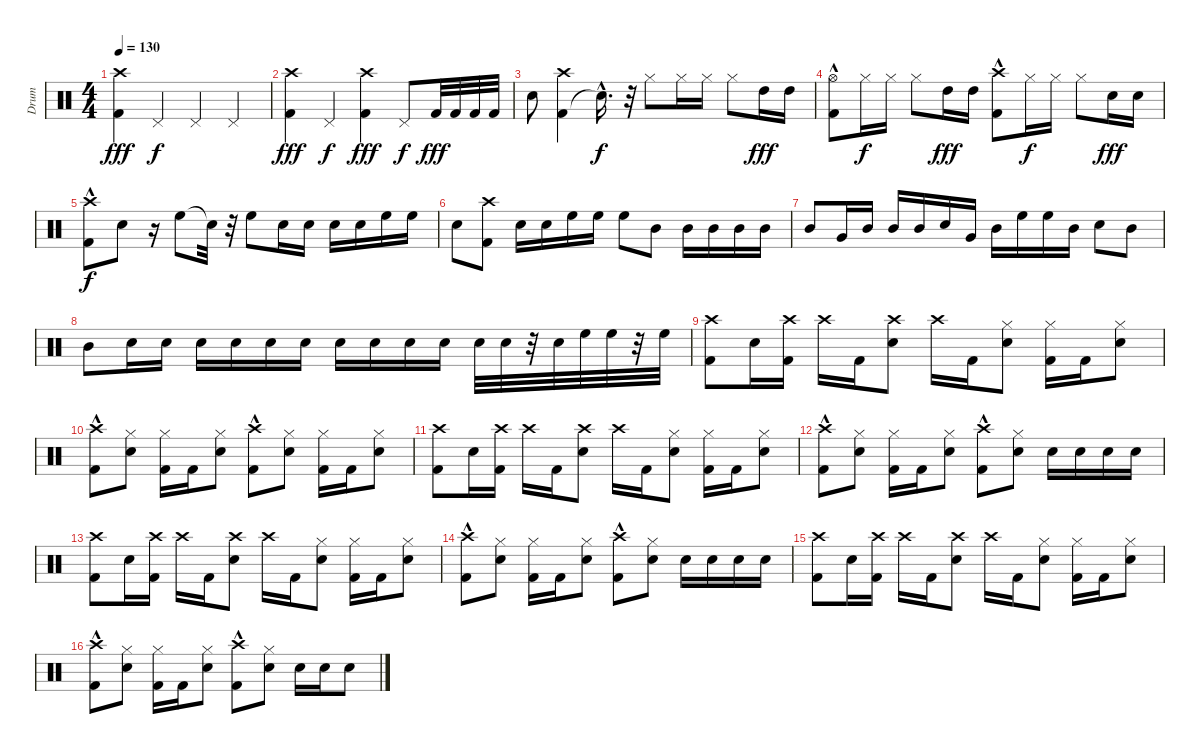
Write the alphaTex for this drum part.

\track ("Drum" "Drum") {instrument percussion}
\staff {score}
\articulation defaults
\ts (4 4)
\tempo 130
\clef neutral
\ks c
("Kick (hit) 2" "Crash high (hit)").4{dy fff} "Pedal Hi-Hat (hit)".4{dy f} "Pedal Hi-Hat (hit)".4 "Pedal Hi-Hat (hit)".4 |
("Kick (hit) 2" "Crash high (hit)").4{dy fff} "Pedal Hi-Hat (hit)".4{dy f} ("Kick (hit) 2" "Crash high (hit)").4{dy fff} "Pedal Hi-Hat (hit)".8{dy f} "Kick (hit) 2".32{dy fff} "Kick (hit) 2".32 "Kick (hit) 2".32 "Kick (hit) 2".32 |
"Snare (hit) 2".8 ("Kick (hit) 2" "Crash high (hit)").4 "Snare (hit)"{hac t}.16{d dy f} r.32 "Hi-Hat (closed)".8 "Hi-Hat (closed)".16 "Hi-Hat (closed)".16 "Hi-Hat (closed)".8 "High Tom (hit)".16{dy fff} "High Tom (hit)".16 |
("Kick (hit) 2"{hac} "Hi-Hat (open)").8 "Hi-Hat (closed)".16{dy f} "Hi-Hat (closed)".16 "Hi-Hat (closed)".8 "High Tom (hit)".16{dy fff} "High Tom (hit)".16 ("Kick (hit) 2"{hac} "Crash high (hit)").8 "Hi-Hat (closed)".16{dy f} "Hi-Hat (closed)".16 "Hi-Hat (closed)".8 "Snare (hit) 2".16{dy fff} "Snare (hit) 2".16 |
("Kick (hit) 2"{hac} "Crash high (hit)").8{dy f} "Snare (hit) 2".8 r.16 "High Floor Tom (hit)".8 "Snare (hit)"{t}.32 r.32 "High Floor Tom (hit)".8 "Snare (hit) 2".16 "Snare (hit) 2".16 "Snare (hit) 2".16 "Snare (hit) 2".16 "High Floor Tom (hit)".16 "High Floor Tom (hit)".16 |
"Snare (hit) 2".8 ("Crash high (hit)" "Kick (hit) 2").8 "Snare (hit) 2".16 "Snare (hit) 2".16 "High Floor Tom (hit)".16 "High Floor Tom (hit)".16 "High Floor Tom (hit)".8 "Mid Tom (hit)".8 "Mid Tom (hit)".16 "Mid Tom (hit)".16 "Mid Tom (hit)".16 "Mid Tom (hit)".16 |
"Mid Tom (hit)".8 "Very Low Tom (hit)".16 "Mid Tom (hit)".16 "Mid Tom (hit)".16 "Mid Tom (hit)".16 "Snare (hit) 2".16 "Very Low Tom (hit)".16 "Mid Tom (hit)".16 "High Floor Tom (hit)".16 "High Floor Tom (hit)".16 "Mid Tom (hit)".16 "Snare (hit) 2".8 "Mid Tom (hit)".8 |
"Mid Tom (hit)".8 "Snare (hit) 2".16 "Snare (hit) 2".16 "Snare (hit) 2".16 "Snare (hit) 2".16 "Snare (hit) 2".16 "Snare (hit) 2".16 "Snare (hit) 2".16 "Snare (hit) 2".16 "Snare (hit) 2".16 "Snare (hit) 2".16 "Snare (hit) 2".32 "Snare (hit) 2".32 r.32 "Snare (hit) 2".32 "High Floor Tom (hit)".32 "High Floor Tom (hit)".32 r.32 "High Floor Tom (hit)".32 |
("Crash high (hit)" "Kick (hit) 2").8 "Snare (hit) 2".16 ("Crash high (hit)" "Kick (hit) 2").16 "Crash high (hit)".16 "Kick (hit) 2".16 ("Crash high (hit)" "Snare (hit) 2").8 "Crash high (hit)".16 "Kick (hit) 2".16 ("Hi-Hat (closed)" "Snare (hit) 2").8 ("Hi-Hat (closed)" "Kick (hit) 2").16 "Kick (hit) 2".16 ("Hi-Hat (closed)" "Snare (hit) 2").8 |
("Crash high (hit)" "Kick (hit) 2"{hac}).8 ("Hi-Hat (closed)" "Snare (hit) 2").8 ("Hi-Hat (closed)" "Kick (hit) 2").16 "Kick (hit) 2".16 ("Hi-Hat (closed)" "Snare (hit) 2").8 ("Crash high (hit)" "Kick (hit) 2"{hac}).8 ("Hi-Hat (closed)" "Snare (hit) 2").8 ("Hi-Hat (closed)" "Kick (hit) 2").16 "Kick (hit) 2".16 ("Hi-Hat (closed)" "Snare (hit) 2").8 |
("Crash high (hit)" "Kick (hit) 2").8 "Snare (hit) 2".16 ("Crash high (hit)" "Kick (hit) 2").16 "Crash high (hit)".16 "Kick (hit) 2".16 ("Crash high (hit)" "Snare (hit) 2").8 "Crash high (hit)".16 "Kick (hit) 2".16 ("Hi-Hat (closed)" "Snare (hit) 2").8 ("Hi-Hat (closed)" "Kick (hit) 2").16 "Kick (hit) 2".16 ("Hi-Hat (closed)" "Snare (hit) 2").8 |
("Crash high (hit)" "Kick (hit) 2"{hac}).8 ("Hi-Hat (closed)" "Snare (hit) 2").8 ("Hi-Hat (closed)" "Kick (hit) 2").16 "Kick (hit) 2".16 ("Hi-Hat (closed)" "Snare (hit) 2").8 ("Crash high (hit)" "Kick (hit) 2"{hac}).8 ("Hi-Hat (closed)" "Snare (hit) 2").8 "Snare (hit) 2".16 "Snare (hit) 2".16 "Snare (hit) 2".16 "Snare (hit) 2".16 |
("Crash high (hit)" "Kick (hit) 2").8 "Snare (hit) 2".16 ("Crash high (hit)" "Kick (hit) 2").16 "Crash high (hit)".16 "Kick (hit) 2".16 ("Crash high (hit)" "Snare (hit) 2").8 "Crash high (hit)".16 "Kick (hit) 2".16 ("Hi-Hat (closed)" "Snare (hit) 2").8 ("Hi-Hat (closed)" "Kick (hit) 2").16 "Kick (hit) 2".16 ("Hi-Hat (closed)" "Snare (hit) 2").8 |
("Crash high (hit)" "Kick (hit) 2"{hac}).8 ("Hi-Hat (closed)" "Snare (hit) 2").8 ("Hi-Hat (closed)" "Kick (hit) 2").16 "Kick (hit) 2".16 ("Hi-Hat (closed)" "Snare (hit) 2").8 ("Crash high (hit)" "Kick (hit) 2"{hac}).8 ("Hi-Hat (closed)" "Snare (hit) 2").8 "Snare (hit) 2".16 "Snare (hit) 2".16 "Snare (hit) 2".16 "Snare (hit) 2".16 |
("Crash high (hit)" "Kick (hit) 2").8 "Snare (hit) 2".16 ("Crash high (hit)" "Kick (hit) 2").16 "Crash high (hit)".16 "Kick (hit) 2".16 ("Crash high (hit)" "Snare (hit) 2").8 "Crash high (hit)".16 "Kick (hit) 2".16 ("Hi-Hat (closed)" "Snare (hit) 2").8 ("Hi-Hat (closed)" "Kick (hit) 2").16 "Kick (hit) 2".16 ("Hi-Hat (closed)" "Snare (hit) 2").8 |
("Crash high (hit)" "Kick (hit) 2"{hac}).8 ("Hi-Hat (closed)" "Snare (hit) 2").8 ("Hi-Hat (closed)" "Kick (hit) 2").16 "Kick (hit) 2".16 ("Hi-Hat (closed)" "Snare (hit) 2").8 ("Crash high (hit)" "Kick (hit) 2"{hac}).8 ("Hi-Hat (closed)" "Snare (hit) 2").8 "Snare (hit) 2".16 "Snare (hit) 2".16 "Snare (hit) 2".8
